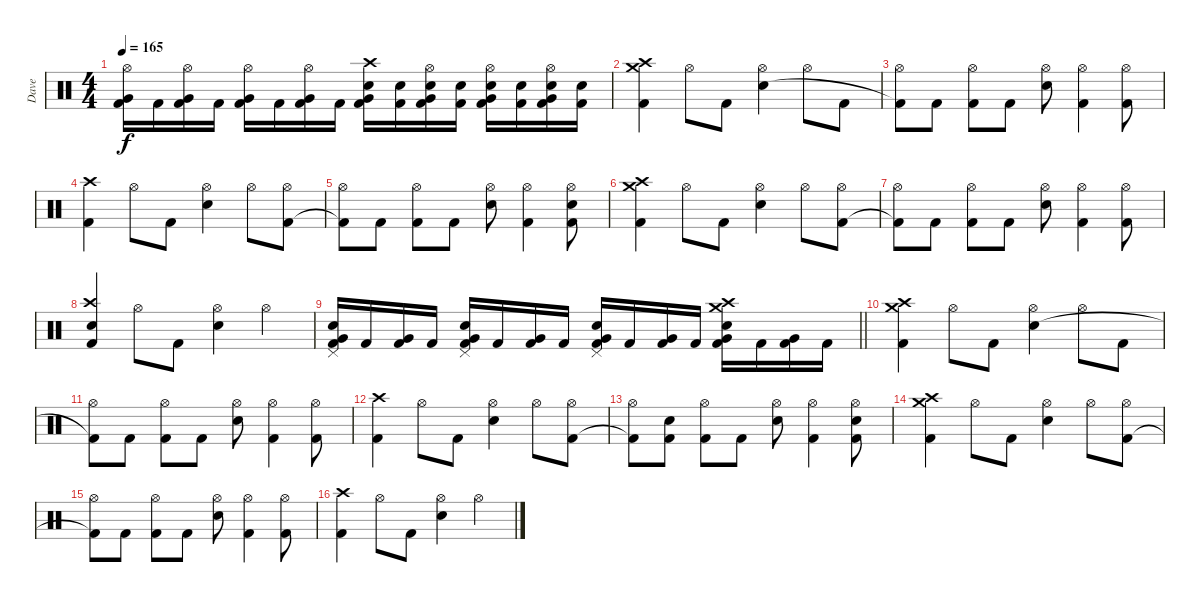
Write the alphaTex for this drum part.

\track ("Dave" "Dave") {mute instrument percussion}
\staff
\articulation defaults
\ts (4 4)
\tempo 165
\clef neutral
\ks c
("Hi-Hat (open)" "Very Low Tom (hit)" "Kick (hit) 2").16{dy f} "Kick (hit) 2".16 ("Hi-Hat (open)" "Very Low Tom (hit)" "Kick (hit) 2").16 "Kick (hit) 2".16 ("Hi-Hat (open)" "Very Low Tom (hit)" "Kick (hit) 2").16 "Kick (hit) 2".16 ("Hi-Hat (open)" "Very Low Tom (hit)" "Kick (hit) 2").16 "Kick (hit) 2".16 ("Crash high (hit)" "Very Low Tom (hit)" "Snare (hit) 2" "Kick (hit) 2").16 ("Snare (hit) 2" "Kick (hit) 2").16 ("Hi-Hat (open)" "Very Low Tom (hit)" "Snare (hit) 2" "Kick (hit) 2").16 ("Snare (hit) 2" "Kick (hit) 2").16 ("Hi-Hat (open)" "Very Low Tom (hit)" "Snare (hit) 2" "Kick (hit) 2").16 ("Snare (hit) 2" "Kick (hit) 2").16 ("Hi-Hat (open)" "Very Low Tom (hit)" "Snare (hit) 2" "Kick (hit) 2").16 ("Snare (hit) 2" "Kick (hit) 2").16 |
("Crash high (hit)" "Crash medium (hit)" "Kick (hit) 2").4 "Hi-Hat (open)".8 "Kick (hit) 2".8 ("Hi-Hat (open)" "Snare (hit) 2").4 "Hi-Hat (open)".8 "Kick (hit) 2".8 |
("Hi-Hat (open)" "Kick (hit) 2"{t}).8 "Kick (hit) 2".8 ("Hi-Hat (open)" "Kick (hit) 2").8 "Kick (hit) 2".8 ("Hi-Hat (open)" "Snare (hit) 2").8 ("Hi-Hat (open)" "Kick (hit) 2").4 ("Hi-Hat (open)" "Kick (hit) 2").8 |
("Crash high (hit)" "Kick (hit) 2").4 "Hi-Hat (open)".8 "Kick (hit) 2".8 ("Hi-Hat (open)" "Snare (hit) 2").4 "Hi-Hat (open)".8 ("Hi-Hat (open)" "Kick (hit) 2").8 |
("Hi-Hat (open)" "Kick (hit) 2"{t}).8 "Kick (hit) 2".8 ("Hi-Hat (open)" "Kick (hit) 2").8 "Kick (hit) 2".8 ("Hi-Hat (open)" "Snare (hit) 2").8 ("Hi-Hat (open)" "Kick (hit) 2").4 ("Hi-Hat (open)" "Snare (hit) 2" "Kick (hit) 2").8 |
("Crash high (hit)" "Crash medium (hit)" "Kick (hit) 2").4 "Hi-Hat (open)".8 "Kick (hit) 2".8 ("Hi-Hat (open)" "Snare (hit) 2").4 "Hi-Hat (open)".8 ("Hi-Hat (open)" "Kick (hit) 2").8 |
("Hi-Hat (open)" "Kick (hit) 2"{t}).8 "Kick (hit) 2".8 ("Hi-Hat (open)" "Kick (hit) 2").8 "Kick (hit) 2".8 ("Hi-Hat (open)" "Snare (hit) 2").8 ("Hi-Hat (open)" "Kick (hit) 2").4 ("Hi-Hat (open)" "Kick (hit) 2").8 |
("Crash high (hit)" "Snare (hit) 2" "Kick (hit) 2").4 "Hi-Hat (open)".8 "Kick (hit) 2".8 ("Hi-Hat (open)" "Snare (hit) 2").4 "Hi-Hat (open)".4 |
\barLineRight lightlight
("Pedal Hi-Hat (hit)" "Snare (hit) 2" "Very Low Tom (hit)" "Kick (hit) 2").16 "Kick (hit) 2".16 ("Very Low Tom (hit)" "Kick (hit) 2").16 "Kick (hit) 2".16 ("Pedal Hi-Hat (hit)" "Snare (hit) 2" "Very Low Tom (hit)" "Kick (hit) 2").16 "Kick (hit) 2".16 ("Very Low Tom (hit)" "Kick (hit) 2").16 "Kick (hit) 2".16 ("Pedal Hi-Hat (hit)" "Snare (hit) 2" "Very Low Tom (hit)" "Kick (hit) 2").16 "Kick (hit) 2".16 ("Very Low Tom (hit)" "Kick (hit) 2").16 "Kick (hit) 2".16 ("Crash medium (hit)" "Crash high (hit)" "Snare (hit) 2" "Very Low Tom (hit)" "Kick (hit) 2").16 "Kick (hit) 2".16 ("Very Low Tom (hit)" "Kick (hit) 2").16 "Kick (hit) 2".16 |
("Crash high (hit)" "Crash medium (hit)" "Kick (hit) 2").4 "Hi-Hat (open)".8 "Kick (hit) 2".8 ("Hi-Hat (open)" "Snare (hit) 2").4 "Hi-Hat (open)".8 "Kick (hit) 2".8 |
("Hi-Hat (open)" "Kick (hit) 2"{t}).8 "Kick (hit) 2".8 ("Hi-Hat (open)" "Kick (hit) 2").8 "Kick (hit) 2".8 ("Hi-Hat (open)" "Snare (hit) 2").8 ("Hi-Hat (open)" "Kick (hit) 2").4 ("Hi-Hat (open)" "Kick (hit) 2").8 |
("Crash high (hit)" "Kick (hit) 2").4 "Hi-Hat (open)".8 "Kick (hit) 2".8 ("Hi-Hat (open)" "Snare (hit) 2").4 "Hi-Hat (open)".8 ("Hi-Hat (open)" "Kick (hit) 2").8 |
("Hi-Hat (open)" "Kick (hit) 2"{t}).8 ("Snare (hit) 2" "Kick (hit) 2").8 ("Hi-Hat (open)" "Kick (hit) 2").8 "Kick (hit) 2".8 ("Hi-Hat (open)" "Snare (hit) 2").8 ("Hi-Hat (open)" "Kick (hit) 2").4 ("Hi-Hat (open)" "Snare (hit) 2" "Kick (hit) 2").8 |
("Crash high (hit)" "Crash medium (hit)" "Kick (hit) 2").4 "Hi-Hat (open)".8 "Kick (hit) 2".8 ("Hi-Hat (open)" "Snare (hit) 2").4 "Hi-Hat (open)".8 ("Hi-Hat (open)" "Kick (hit) 2").8 |
("Hi-Hat (open)" "Kick (hit) 2"{t}).8 "Kick (hit) 2".8 ("Hi-Hat (open)" "Kick (hit) 2").8 "Kick (hit) 2".8 ("Hi-Hat (open)" "Snare (hit) 2").8 ("Hi-Hat (open)" "Kick (hit) 2").4 ("Hi-Hat (open)" "Kick (hit) 2").8 |
("Crash high (hit)" "Kick (hit) 2").4 "Hi-Hat (open)".8 "Kick (hit) 2".8 ("Hi-Hat (open)" "Snare (hit) 2").4 "Hi-Hat (open)".4
